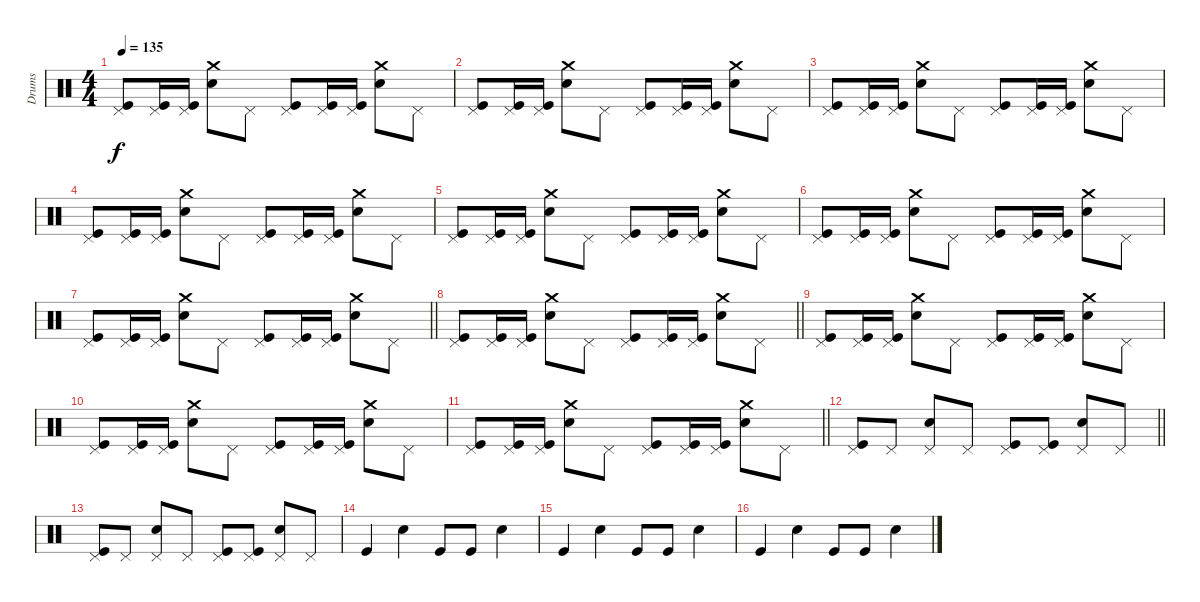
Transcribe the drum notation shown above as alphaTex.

\track ("Drums" "Drums") {instrument percussion}
\staff {score}
\articulation defaults
\ts (4 4)
\tempo 135
\clef neutral
\ks c
("Pedal Hi-Hat (hit)" "Kick (hit)").8{dy f} ("Pedal Hi-Hat (hit)" "Kick (hit)").16 ("Pedal Hi-Hat (hit)" "Kick (hit)").16 ("Crash medium (hit)" "Electric Snare (hit)").8 "Pedal Hi-Hat (hit)".8 ("Pedal Hi-Hat (hit)" "Kick (hit)").8 ("Pedal Hi-Hat (hit)" "Kick (hit)").16 ("Pedal Hi-Hat (hit)" "Kick (hit)").16 ("Crash medium (hit)" "Electric Snare (hit)").8 "Pedal Hi-Hat (hit)".8 |
("Pedal Hi-Hat (hit)" "Kick (hit)").8 ("Pedal Hi-Hat (hit)" "Kick (hit)").16 ("Pedal Hi-Hat (hit)" "Kick (hit)").16 ("Crash medium (hit)" "Electric Snare (hit)").8 "Pedal Hi-Hat (hit)".8 ("Pedal Hi-Hat (hit)" "Kick (hit)").8 ("Pedal Hi-Hat (hit)" "Kick (hit)").16 ("Pedal Hi-Hat (hit)" "Kick (hit)").16 ("Crash medium (hit)" "Electric Snare (hit)").8 "Pedal Hi-Hat (hit)".8 |
("Pedal Hi-Hat (hit)" "Kick (hit)").8 ("Pedal Hi-Hat (hit)" "Kick (hit)").16 ("Pedal Hi-Hat (hit)" "Kick (hit)").16 ("Crash medium (hit)" "Electric Snare (hit)").8 "Pedal Hi-Hat (hit)".8 ("Pedal Hi-Hat (hit)" "Kick (hit)").8 ("Pedal Hi-Hat (hit)" "Kick (hit)").16 ("Pedal Hi-Hat (hit)" "Kick (hit)").16 ("Crash medium (hit)" "Electric Snare (hit)").8 "Pedal Hi-Hat (hit)".8 |
("Pedal Hi-Hat (hit)" "Kick (hit)").8 ("Pedal Hi-Hat (hit)" "Kick (hit)").16 ("Pedal Hi-Hat (hit)" "Kick (hit)").16 ("Crash medium (hit)" "Electric Snare (hit)").8 "Pedal Hi-Hat (hit)".8 ("Pedal Hi-Hat (hit)" "Kick (hit)").8 ("Pedal Hi-Hat (hit)" "Kick (hit)").16 ("Pedal Hi-Hat (hit)" "Kick (hit)").16 ("Crash medium (hit)" "Electric Snare (hit)").8 "Pedal Hi-Hat (hit)".8 |
("Pedal Hi-Hat (hit)" "Kick (hit)").8 ("Pedal Hi-Hat (hit)" "Kick (hit)").16 ("Pedal Hi-Hat (hit)" "Kick (hit)").16 ("Crash medium (hit)" "Electric Snare (hit)").8 "Pedal Hi-Hat (hit)".8 ("Pedal Hi-Hat (hit)" "Kick (hit)").8 ("Pedal Hi-Hat (hit)" "Kick (hit)").16 ("Pedal Hi-Hat (hit)" "Kick (hit)").16 ("Crash medium (hit)" "Electric Snare (hit)").8 "Pedal Hi-Hat (hit)".8 |
("Pedal Hi-Hat (hit)" "Kick (hit)").8 ("Pedal Hi-Hat (hit)" "Kick (hit)").16 ("Pedal Hi-Hat (hit)" "Kick (hit)").16 ("Crash medium (hit)" "Electric Snare (hit)").8 "Pedal Hi-Hat (hit)".8 ("Pedal Hi-Hat (hit)" "Kick (hit)").8 ("Pedal Hi-Hat (hit)" "Kick (hit)").16 ("Pedal Hi-Hat (hit)" "Kick (hit)").16 ("Crash medium (hit)" "Electric Snare (hit)").8 "Pedal Hi-Hat (hit)".8 |
\barLineRight lightlight
("Pedal Hi-Hat (hit)" "Kick (hit)").8 ("Pedal Hi-Hat (hit)" "Kick (hit)").16 ("Pedal Hi-Hat (hit)" "Kick (hit)").16 ("Crash medium (hit)" "Electric Snare (hit)").8 "Pedal Hi-Hat (hit)".8 ("Pedal Hi-Hat (hit)" "Kick (hit)").8 ("Pedal Hi-Hat (hit)" "Kick (hit)").16 ("Pedal Hi-Hat (hit)" "Kick (hit)").16 ("Crash medium (hit)" "Electric Snare (hit)").8 "Pedal Hi-Hat (hit)".8 |
\barLineRight lightlight
("Pedal Hi-Hat (hit)" "Kick (hit)").8 ("Pedal Hi-Hat (hit)" "Kick (hit)").16 ("Pedal Hi-Hat (hit)" "Kick (hit)").16 ("Crash medium (hit)" "Electric Snare (hit)").8 "Pedal Hi-Hat (hit)".8 ("Pedal Hi-Hat (hit)" "Kick (hit)").8 ("Pedal Hi-Hat (hit)" "Kick (hit)").16 ("Pedal Hi-Hat (hit)" "Kick (hit)").16 ("Crash medium (hit)" "Electric Snare (hit)").8 "Pedal Hi-Hat (hit)".8 |
("Pedal Hi-Hat (hit)" "Kick (hit)").8 ("Pedal Hi-Hat (hit)" "Kick (hit)").16 ("Pedal Hi-Hat (hit)" "Kick (hit)").16 ("Crash medium (hit)" "Electric Snare (hit)").8 "Pedal Hi-Hat (hit)".8 ("Pedal Hi-Hat (hit)" "Kick (hit)").8 ("Pedal Hi-Hat (hit)" "Kick (hit)").16 ("Pedal Hi-Hat (hit)" "Kick (hit)").16 ("Crash medium (hit)" "Electric Snare (hit)").8 "Pedal Hi-Hat (hit)".8 |
("Pedal Hi-Hat (hit)" "Kick (hit)").8 ("Pedal Hi-Hat (hit)" "Kick (hit)").16 ("Pedal Hi-Hat (hit)" "Kick (hit)").16 ("Crash medium (hit)" "Electric Snare (hit)").8 "Pedal Hi-Hat (hit)".8 ("Pedal Hi-Hat (hit)" "Kick (hit)").8 ("Pedal Hi-Hat (hit)" "Kick (hit)").16 ("Pedal Hi-Hat (hit)" "Kick (hit)").16 ("Crash medium (hit)" "Electric Snare (hit)").8 "Pedal Hi-Hat (hit)".8 |
\barLineRight lightlight
("Pedal Hi-Hat (hit)" "Kick (hit)").8 ("Pedal Hi-Hat (hit)" "Kick (hit)").16 ("Pedal Hi-Hat (hit)" "Kick (hit)").16 ("Crash medium (hit)" "Electric Snare (hit)").8 "Pedal Hi-Hat (hit)".8 ("Pedal Hi-Hat (hit)" "Kick (hit)").8 ("Pedal Hi-Hat (hit)" "Kick (hit)").16 ("Pedal Hi-Hat (hit)" "Kick (hit)").16 ("Crash medium (hit)" "Electric Snare (hit)").8 "Pedal Hi-Hat (hit)".8 |
\barLineRight lightlight
("Pedal Hi-Hat (hit)" "Kick (hit)").8 "Pedal Hi-Hat (hit)".8 ("Pedal Hi-Hat (hit)" "Electric Snare (hit)").8 "Pedal Hi-Hat (hit)".8 ("Pedal Hi-Hat (hit)" "Kick (hit)").8 ("Pedal Hi-Hat (hit)" "Kick (hit)").8 ("Pedal Hi-Hat (hit)" "Electric Snare (hit)").8 "Pedal Hi-Hat (hit)".8 |
("Pedal Hi-Hat (hit)" "Kick (hit)").8 "Pedal Hi-Hat (hit)".8 ("Pedal Hi-Hat (hit)" "Electric Snare (hit)").8 "Pedal Hi-Hat (hit)".8 ("Pedal Hi-Hat (hit)" "Kick (hit)").8 ("Pedal Hi-Hat (hit)" "Kick (hit)").8 ("Pedal Hi-Hat (hit)" "Electric Snare (hit)").8 "Pedal Hi-Hat (hit)".8 |
"Kick (hit)".4 "Electric Snare (hit)".4 "Kick (hit)".8 "Kick (hit)".8 "Electric Snare (hit)".4 |
"Kick (hit)".4 "Electric Snare (hit)".4 "Kick (hit)".8 "Kick (hit)".8 "Electric Snare (hit)".4 |
"Kick (hit)".4 "Electric Snare (hit)".4 "Kick (hit)".8 "Kick (hit)".8 "Electric Snare (hit)".4
